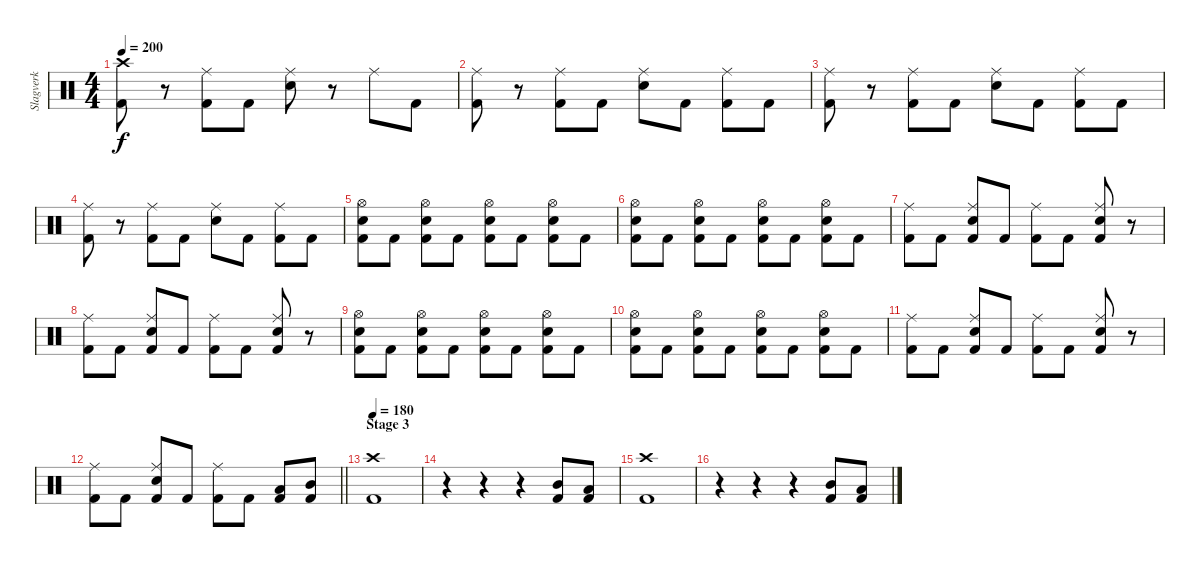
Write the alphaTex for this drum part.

\track ("Slagverk" "Slagverk") {instrument percussion}
\staff {score}
\articulation defaults
\ts (4 4)
\tempo 200
\clef neutral
\ks c
("Crash high (hit)" "Kick (hit) 2").8{dy f} r.8 ("Ride (middle)" "Kick (hit) 2").8 "Kick (hit) 2".8 ("Ride (middle)" "Electric Snare (hit)").8 r.8 "Ride (middle)".8 "Kick (hit) 2".8 |
("Ride (middle)" "Kick (hit) 2").8 r.8 ("Ride (middle)" "Kick (hit) 2").8 "Kick (hit) 2".8 ("Ride (middle)" "Electric Snare (hit)").8 "Kick (hit) 2".8 ("Ride (middle)" "Kick (hit) 2").8 "Kick (hit) 2".8 |
("Ride (middle)" "Kick (hit) 2").8 r.8 ("Ride (middle)" "Kick (hit) 2").8 "Kick (hit) 2".8 ("Ride (middle)" "Electric Snare (hit)").8 "Kick (hit) 2".8 ("Ride (middle)" "Kick (hit) 2").8 "Kick (hit) 2".8 |
("Ride (middle)" "Kick (hit) 2").8 r.8 ("Ride (middle)" "Kick (hit) 2").8 "Kick (hit) 2".8 ("Ride (middle)" "Electric Snare (hit)").8 "Kick (hit) 2".8 ("Ride (middle)" "Kick (hit) 2").8 "Kick (hit) 2".8 |
("Hi-Hat (open)" "Electric Snare (hit)" "Kick (hit) 2").8 "Kick (hit) 2".8 ("Hi-Hat (open)" "Electric Snare (hit)" "Kick (hit) 2").8 "Kick (hit) 2".8 ("Hi-Hat (open)" "Electric Snare (hit)" "Kick (hit) 2").8 "Kick (hit) 2".8 ("Hi-Hat (open)" "Electric Snare (hit)" "Kick (hit) 2").8 "Kick (hit) 2".8 |
("Hi-Hat (open)" "Electric Snare (hit)" "Kick (hit) 2").8 "Kick (hit) 2".8 ("Hi-Hat (open)" "Electric Snare (hit)" "Kick (hit) 2").8 "Kick (hit) 2".8 ("Hi-Hat (open)" "Electric Snare (hit)" "Kick (hit) 2").8 "Kick (hit) 2".8 ("Hi-Hat (open)" "Electric Snare (hit)" "Kick (hit) 2").8 "Kick (hit) 2".8 |
("Ride (middle)" "Kick (hit) 2").8 "Kick (hit) 2".8 ("Ride (middle)" "Electric Snare (hit)" "Kick (hit) 2").8 "Kick (hit) 2".8 ("Ride (middle)" "Kick (hit) 2").8 "Kick (hit) 2".8 ("Ride (middle)" "Electric Snare (hit)" "Kick (hit) 2").8 r.8 |
("Ride (middle)" "Kick (hit) 2").8 "Kick (hit) 2".8 ("Ride (middle)" "Electric Snare (hit)" "Kick (hit) 2").8 "Kick (hit) 2".8 ("Ride (middle)" "Kick (hit) 2").8 "Kick (hit) 2".8 ("Ride (middle)" "Electric Snare (hit)" "Kick (hit) 2").8 r.8 |
("Hi-Hat (open)" "Electric Snare (hit)" "Kick (hit) 2").8 "Kick (hit) 2".8 ("Hi-Hat (open)" "Electric Snare (hit)" "Kick (hit) 2").8 "Kick (hit) 2".8 ("Hi-Hat (open)" "Electric Snare (hit)" "Kick (hit) 2").8 "Kick (hit) 2".8 ("Hi-Hat (open)" "Electric Snare (hit)" "Kick (hit) 2").8 "Kick (hit) 2".8 |
("Hi-Hat (open)" "Electric Snare (hit)" "Kick (hit) 2").8 "Kick (hit) 2".8 ("Hi-Hat (open)" "Electric Snare (hit)" "Kick (hit) 2").8 "Kick (hit) 2".8 ("Hi-Hat (open)" "Electric Snare (hit)" "Kick (hit) 2").8 "Kick (hit) 2".8 ("Hi-Hat (open)" "Electric Snare (hit)" "Kick (hit) 2").8 "Kick (hit) 2".8 |
("Ride (middle)" "Kick (hit) 2").8 "Kick (hit) 2".8 ("Ride (middle)" "Electric Snare (hit)" "Kick (hit) 2").8 "Kick (hit) 2".8 ("Ride (middle)" "Kick (hit) 2").8 "Kick (hit) 2".8 ("Ride (middle)" "Electric Snare (hit)" "Kick (hit) 2").8 r.8 |
\barLineRight lightlight
("Ride (middle)" "Kick (hit) 2").8 "Kick (hit) 2".8 ("Ride (middle)" "Electric Snare (hit)" "Kick (hit) 2").8 "Kick (hit) 2".8 ("Ride (middle)" "Kick (hit) 2").8 "Kick (hit) 2".8 ("Low Tom (hit)" "Kick (hit) 2").8 ("Mid Tom (hit)" "Kick (hit) 2").8 |
\section ("" "Stage 3")
\tempo 180
("Crash high (hit)" "Kick (hit) 2").1 |
r.4 r.4 r.4 ("Mid Tom (hit)" "Kick (hit) 2").8 ("Low Tom (hit)" "Kick (hit) 2").8 |
("Crash high (hit)" "Kick (hit) 2").1 |
r.4 r.4 r.4 ("Mid Tom (hit)" "Kick (hit) 2").8 ("Low Tom (hit)" "Kick (hit) 2").8
